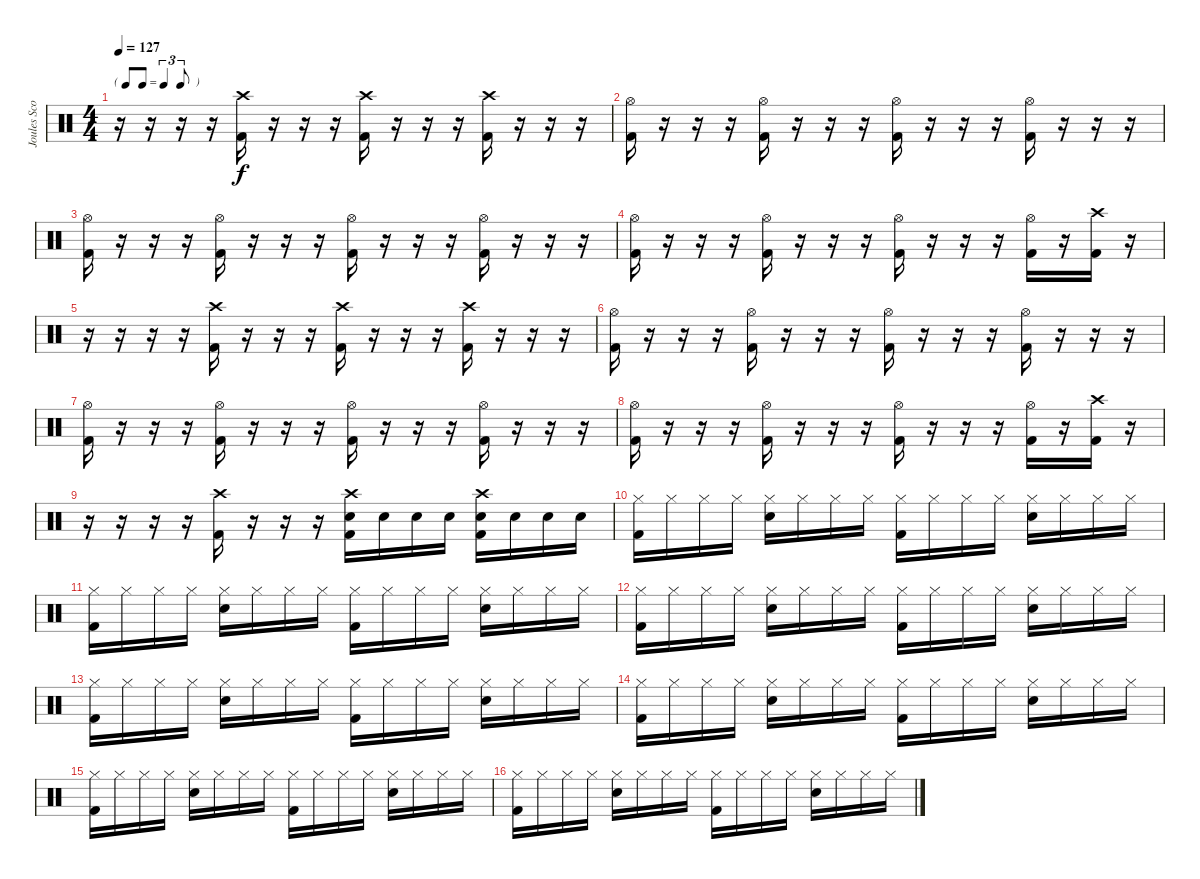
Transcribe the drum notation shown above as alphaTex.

\track ("Joules Scott-Key" "Joules Sco") {instrument percussion}
\staff {score}
\articulation defaults
\ts (4 4)
\tf triplet8th
\tempo 127
\clef neutral
\ks c
r.16{dy f} r.16 r.16 r.16 ("Crash high (hit)" "Kick (hit) 2").16 r.16 r.16 r.16 ("Crash high (hit)" "Kick (hit) 2").16 r.16 r.16 r.16 ("Crash high (hit)" "Kick (hit) 2").16 r.16 r.16 r.16 |
("Hi-Hat (open)" "Kick (hit) 2").16 r.16 r.16 r.16 ("Hi-Hat (open)" "Kick (hit) 2").16 r.16 r.16 r.16 ("Hi-Hat (open)" "Kick (hit) 2").16 r.16 r.16 r.16 ("Hi-Hat (open)" "Kick (hit) 2").16 r.16 r.16 r.16 |
("Hi-Hat (open)" "Kick (hit) 2").16 r.16 r.16 r.16 ("Hi-Hat (open)" "Kick (hit) 2").16 r.16 r.16 r.16 ("Hi-Hat (open)" "Kick (hit) 2").16 r.16 r.16 r.16 ("Hi-Hat (open)" "Kick (hit) 2").16 r.16 r.16 r.16 |
("Hi-Hat (open)" "Kick (hit) 2").16 r.16 r.16 r.16 ("Hi-Hat (open)" "Kick (hit) 2").16 r.16 r.16 r.16 ("Hi-Hat (open)" "Kick (hit) 2").16 r.16 r.16 r.16 ("Hi-Hat (open)" "Kick (hit) 2").16 r.16 ("Crash high (hit)" "Kick (hit) 2").16 r.16 |
r.16 r.16 r.16 r.16 ("Crash high (hit)" "Kick (hit) 2").16 r.16 r.16 r.16 ("Crash high (hit)" "Kick (hit) 2").16 r.16 r.16 r.16 ("Crash high (hit)" "Kick (hit) 2").16 r.16 r.16 r.16 |
("Hi-Hat (open)" "Kick (hit) 2").16 r.16 r.16 r.16 ("Hi-Hat (open)" "Kick (hit) 2").16 r.16 r.16 r.16 ("Hi-Hat (open)" "Kick (hit) 2").16 r.16 r.16 r.16 ("Hi-Hat (open)" "Kick (hit) 2").16 r.16 r.16 r.16 |
("Hi-Hat (open)" "Kick (hit) 2").16 r.16 r.16 r.16 ("Hi-Hat (open)" "Kick (hit) 2").16 r.16 r.16 r.16 ("Hi-Hat (open)" "Kick (hit) 2").16 r.16 r.16 r.16 ("Hi-Hat (open)" "Kick (hit) 2").16 r.16 r.16 r.16 |
("Hi-Hat (open)" "Kick (hit) 2").16 r.16 r.16 r.16 ("Hi-Hat (open)" "Kick (hit) 2").16 r.16 r.16 r.16 ("Hi-Hat (open)" "Kick (hit) 2").16 r.16 r.16 r.16 ("Hi-Hat (open)" "Kick (hit) 2").16 r.16 ("Crash high (hit)" "Kick (hit) 2").16 r.16 |
r.16 r.16 r.16 r.16 ("Crash high (hit)" "Kick (hit) 2").16 r.16 r.16 r.16 ("Crash high (hit)" "Electric Snare (hit)" "Kick (hit) 2").16 "Electric Snare (hit)".16 "Electric Snare (hit)".16 "Electric Snare (hit)".16 ("Crash high (hit)" "Electric Snare (hit)" "Kick (hit) 2").16 "Electric Snare (hit)".16 "Electric Snare (hit)".16 "Electric Snare (hit)".16 |
("Hi-Hat (closed)" "Kick (hit) 2").16 "Hi-Hat (closed)".16 "Hi-Hat (closed)".16 "Hi-Hat (closed)".16 ("Hi-Hat (closed)" "Electric Snare (hit)").16 "Hi-Hat (closed)".16 "Hi-Hat (closed)".16 "Hi-Hat (closed)".16 ("Hi-Hat (closed)" "Kick (hit) 2").16 "Hi-Hat (closed)".16 "Hi-Hat (closed)".16 "Hi-Hat (closed)".16 ("Hi-Hat (closed)" "Electric Snare (hit)").16 "Hi-Hat (closed)".16 "Hi-Hat (closed)".16 "Hi-Hat (closed)".16 |
("Hi-Hat (closed)" "Kick (hit) 2").16 "Hi-Hat (closed)".16 "Hi-Hat (closed)".16 "Hi-Hat (closed)".16 ("Hi-Hat (closed)" "Electric Snare (hit)").16 "Hi-Hat (closed)".16 "Hi-Hat (closed)".16 "Hi-Hat (closed)".16 ("Hi-Hat (closed)" "Kick (hit) 2").16 "Hi-Hat (closed)".16 "Hi-Hat (closed)".16 "Hi-Hat (closed)".16 ("Hi-Hat (closed)" "Electric Snare (hit)").16 "Hi-Hat (closed)".16 "Hi-Hat (closed)".16 "Hi-Hat (closed)".16 |
("Hi-Hat (closed)" "Kick (hit) 2").16 "Hi-Hat (closed)".16 "Hi-Hat (closed)".16 "Hi-Hat (closed)".16 ("Hi-Hat (closed)" "Electric Snare (hit)").16 "Hi-Hat (closed)".16 "Hi-Hat (closed)".16 "Hi-Hat (closed)".16 ("Hi-Hat (closed)" "Kick (hit) 2").16 "Hi-Hat (closed)".16 "Hi-Hat (closed)".16 "Hi-Hat (closed)".16 ("Hi-Hat (closed)" "Electric Snare (hit)").16 "Hi-Hat (closed)".16 "Hi-Hat (closed)".16 "Hi-Hat (closed)".16 |
("Hi-Hat (closed)" "Kick (hit) 2").16 "Hi-Hat (closed)".16 "Hi-Hat (closed)".16 "Hi-Hat (closed)".16 ("Hi-Hat (closed)" "Electric Snare (hit)").16 "Hi-Hat (closed)".16 "Hi-Hat (closed)".16 "Hi-Hat (closed)".16 ("Hi-Hat (closed)" "Kick (hit) 2").16 "Hi-Hat (closed)".16 "Hi-Hat (closed)".16 "Hi-Hat (closed)".16 ("Hi-Hat (closed)" "Electric Snare (hit)").16 "Hi-Hat (closed)".16 "Hi-Hat (closed)".16 "Hi-Hat (closed)".16 |
("Hi-Hat (closed)" "Kick (hit) 2").16 "Hi-Hat (closed)".16 "Hi-Hat (closed)".16 "Hi-Hat (closed)".16 ("Hi-Hat (closed)" "Electric Snare (hit)").16 "Hi-Hat (closed)".16 "Hi-Hat (closed)".16 "Hi-Hat (closed)".16 ("Hi-Hat (closed)" "Kick (hit) 2").16 "Hi-Hat (closed)".16 "Hi-Hat (closed)".16 "Hi-Hat (closed)".16 ("Hi-Hat (closed)" "Electric Snare (hit)").16 "Hi-Hat (closed)".16 "Hi-Hat (closed)".16 "Hi-Hat (closed)".16 |
("Hi-Hat (closed)" "Kick (hit) 2").16 "Hi-Hat (closed)".16 "Hi-Hat (closed)".16 "Hi-Hat (closed)".16 ("Hi-Hat (closed)" "Electric Snare (hit)").16 "Hi-Hat (closed)".16 "Hi-Hat (closed)".16 "Hi-Hat (closed)".16 ("Hi-Hat (closed)" "Kick (hit) 2").16 "Hi-Hat (closed)".16 "Hi-Hat (closed)".16 "Hi-Hat (closed)".16 ("Hi-Hat (closed)" "Electric Snare (hit)").16 "Hi-Hat (closed)".16 "Hi-Hat (closed)".16 "Hi-Hat (closed)".16 |
("Hi-Hat (closed)" "Kick (hit) 2").16 "Hi-Hat (closed)".16 "Hi-Hat (closed)".16 "Hi-Hat (closed)".16 ("Hi-Hat (closed)" "Electric Snare (hit)").16 "Hi-Hat (closed)".16 "Hi-Hat (closed)".16 "Hi-Hat (closed)".16 ("Hi-Hat (closed)" "Kick (hit) 2").16 "Hi-Hat (closed)".16 "Hi-Hat (closed)".16 "Hi-Hat (closed)".16 ("Hi-Hat (closed)" "Electric Snare (hit)").16 "Hi-Hat (closed)".16 "Hi-Hat (closed)".16 "Hi-Hat (closed)".16
